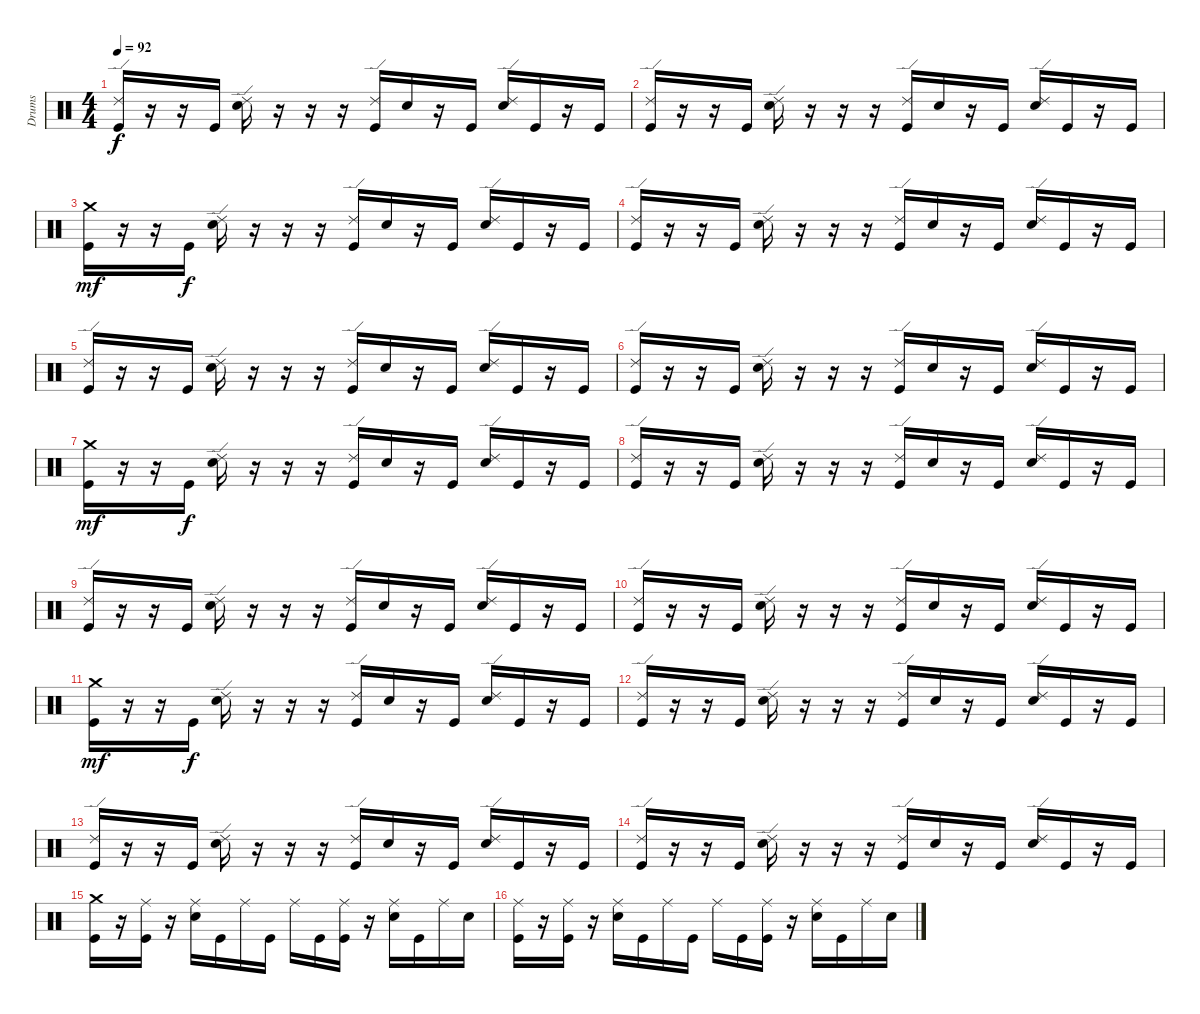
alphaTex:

\track ("Drums" "Drums") {instrument percussion}
\staff {score}
\articulation defaults
\ts (4 4)
\tempo 92
\clef neutral
\ks c
("Ride (edge) 2" "Kick (hit)").16{dy f} r.16 r.16 "Kick (hit)".16 ("Ride (edge) 2" "Snare (hit) 2").16 r.16 r.16 r.16 ("Ride (edge) 2" "Kick (hit)").16 "Snare (hit) 2".16 r.16 "Kick (hit)".16 ("Ride (edge) 2" "Snare (hit) 2").16 "Kick (hit)".16 r.16 "Kick (hit)".16 |
("Ride (edge) 2" "Kick (hit)").16 r.16 r.16 "Kick (hit)".16 ("Ride (edge) 2" "Snare (hit) 2").16 r.16 r.16 r.16 ("Ride (edge) 2" "Kick (hit)").16 "Snare (hit) 2".16 r.16 "Kick (hit)".16 ("Ride (edge) 2" "Snare (hit) 2").16 "Kick (hit)".16 r.16 "Kick (hit)".16 |
("Crash medium (hit)" "Kick (hit)").16{dy mf} r.16 r.16 "Kick (hit)".16{dy f} ("Ride (edge) 2" "Snare (hit) 2").16 r.16 r.16 r.16 ("Ride (edge) 2" "Kick (hit)").16 "Snare (hit) 2".16 r.16 "Kick (hit)".16 ("Ride (edge) 2" "Snare (hit) 2").16 "Kick (hit)".16 r.16 "Kick (hit)".16 |
("Ride (edge) 2" "Kick (hit)").16 r.16 r.16 "Kick (hit)".16 ("Ride (edge) 2" "Snare (hit) 2").16 r.16 r.16 r.16 ("Ride (edge) 2" "Kick (hit)").16 "Snare (hit) 2".16 r.16 "Kick (hit)".16 ("Ride (edge) 2" "Snare (hit) 2").16 "Kick (hit)".16 r.16 "Kick (hit)".16 |
("Ride (edge) 2" "Kick (hit)").16 r.16 r.16 "Kick (hit)".16 ("Ride (edge) 2" "Snare (hit) 2").16 r.16 r.16 r.16 ("Ride (edge) 2" "Kick (hit)").16 "Snare (hit) 2".16 r.16 "Kick (hit)".16 ("Ride (edge) 2" "Snare (hit) 2").16 "Kick (hit)".16 r.16 "Kick (hit)".16 |
("Ride (edge) 2" "Kick (hit)").16 r.16 r.16 "Kick (hit)".16 ("Ride (edge) 2" "Snare (hit) 2").16 r.16 r.16 r.16 ("Ride (edge) 2" "Kick (hit)").16 "Snare (hit) 2".16 r.16 "Kick (hit)".16 ("Ride (edge) 2" "Snare (hit) 2").16 "Kick (hit)".16 r.16 "Kick (hit)".16 |
("Crash medium (hit)" "Kick (hit)").16{dy mf} r.16 r.16 "Kick (hit)".16{dy f} ("Ride (edge) 2" "Snare (hit) 2").16 r.16 r.16 r.16 ("Ride (edge) 2" "Kick (hit)").16 "Snare (hit) 2".16 r.16 "Kick (hit)".16 ("Ride (edge) 2" "Snare (hit) 2").16 "Kick (hit)".16 r.16 "Kick (hit)".16 |
("Ride (edge) 2" "Kick (hit)").16 r.16 r.16 "Kick (hit)".16 ("Ride (edge) 2" "Snare (hit) 2").16 r.16 r.16 r.16 ("Ride (edge) 2" "Kick (hit)").16 "Snare (hit) 2".16 r.16 "Kick (hit)".16 ("Ride (edge) 2" "Snare (hit) 2").16 "Kick (hit)".16 r.16 "Kick (hit)".16 |
("Ride (edge) 2" "Kick (hit)").16 r.16 r.16 "Kick (hit)".16 ("Ride (edge) 2" "Snare (hit) 2").16 r.16 r.16 r.16 ("Ride (edge) 2" "Kick (hit)").16 "Snare (hit) 2".16 r.16 "Kick (hit)".16 ("Ride (edge) 2" "Snare (hit) 2").16 "Kick (hit)".16 r.16 "Kick (hit)".16 |
("Ride (edge) 2" "Kick (hit)").16 r.16 r.16 "Kick (hit)".16 ("Ride (edge) 2" "Snare (hit) 2").16 r.16 r.16 r.16 ("Ride (edge) 2" "Kick (hit)").16 "Snare (hit) 2".16 r.16 "Kick (hit)".16 ("Ride (edge) 2" "Snare (hit) 2").16 "Kick (hit)".16 r.16 "Kick (hit)".16 |
("Crash medium (hit)" "Kick (hit)").16{dy mf} r.16 r.16 "Kick (hit)".16{dy f} ("Ride (edge) 2" "Snare (hit) 2").16 r.16 r.16 r.16 ("Ride (edge) 2" "Kick (hit)").16 "Snare (hit) 2".16 r.16 "Kick (hit)".16 ("Ride (edge) 2" "Snare (hit) 2").16 "Kick (hit)".16 r.16 "Kick (hit)".16 |
("Ride (edge) 2" "Kick (hit)").16 r.16 r.16 "Kick (hit)".16 ("Ride (edge) 2" "Snare (hit) 2").16 r.16 r.16 r.16 ("Ride (edge) 2" "Kick (hit)").16 "Snare (hit) 2".16 r.16 "Kick (hit)".16 ("Ride (edge) 2" "Snare (hit) 2").16 "Kick (hit)".16 r.16 "Kick (hit)".16 |
("Ride (edge) 2" "Kick (hit)").16 r.16 r.16 "Kick (hit)".16 ("Ride (edge) 2" "Snare (hit) 2").16 r.16 r.16 r.16 ("Ride (edge) 2" "Kick (hit)").16 "Snare (hit) 2".16 r.16 "Kick (hit)".16 ("Ride (edge) 2" "Snare (hit) 2").16 "Kick (hit)".16 r.16 "Kick (hit)".16 |
("Ride (edge) 2" "Kick (hit)").16 r.16 r.16 "Kick (hit)".16 ("Ride (edge) 2" "Snare (hit) 2").16 r.16 r.16 r.16 ("Ride (edge) 2" "Kick (hit)").16 "Snare (hit) 2".16 r.16 "Kick (hit)".16 ("Ride (edge) 2" "Snare (hit) 2").16 "Kick (hit)".16 r.16 "Kick (hit)".16 |
("Crash medium (hit)" "Kick (hit)").16 r.16 ("Ride (middle)" "Kick (hit)").16 r.16 ("Ride (middle)" "Snare (hit) 2").16 "Kick (hit)".16 "Ride (middle)".16 "Kick (hit)".16 "Ride (middle)".16 "Kick (hit)".16 ("Ride (middle)" "Kick (hit)").16 r.16 ("Ride (middle)" "Snare (hit) 2").16 "Kick (hit)".16 "Ride (middle)".16 "Snare (hit) 2".16 |
("Ride (middle)" "Kick (hit)").16 r.16 ("Ride (middle)" "Kick (hit)").16 r.16 ("Ride (middle)" "Snare (hit) 2").16 "Kick (hit)".16 "Ride (middle)".16 "Kick (hit)".16 "Ride (middle)".16 "Kick (hit)".16 ("Ride (middle)" "Kick (hit)").16 r.16 ("Ride (middle)" "Snare (hit) 2").16 "Kick (hit)".16 "Ride (middle)".16 "Snare (hit) 2".16
